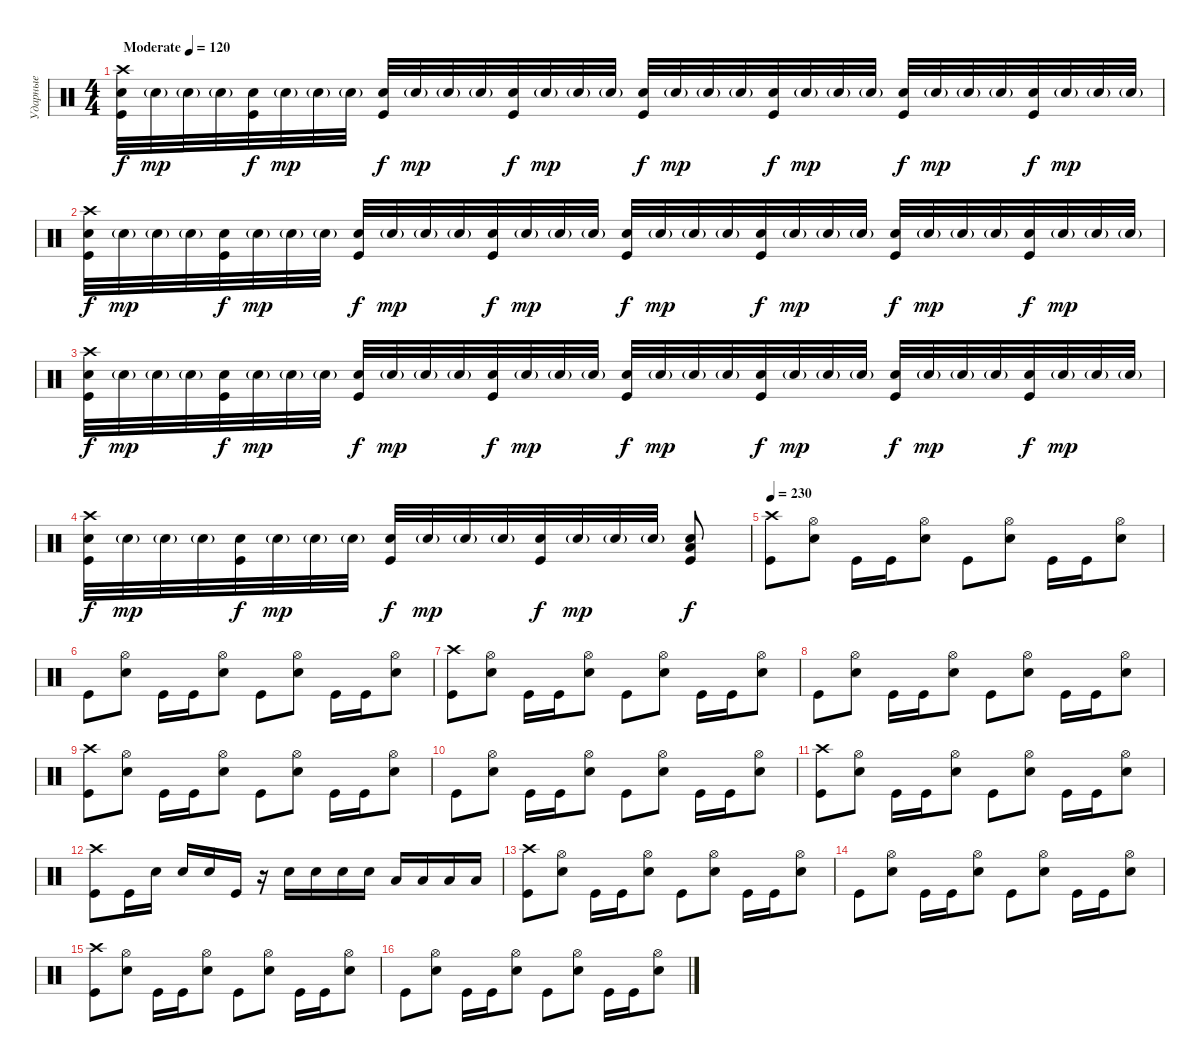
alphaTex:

\track ("Ударные" "Ударные") {instrument percussion}
\staff {score}
\articulation defaults
\ts (4 4)
\tempo (120 "Moderate")
\clef neutral
\ks c
("Crash high (hit)" "Snare (hit) 2" "Kick (hit)").32{dy f} "Snare (hit) 2"{g}.32{dy mp} "Snare (hit) 2"{g}.32 "Snare (hit) 2"{g}.32 ("Snare (hit) 2" "Kick (hit)").32{dy f} "Snare (hit) 2"{g}.32{dy mp} "Snare (hit) 2"{g}.32 "Snare (hit) 2"{g}.32 ("Snare (hit) 2" "Kick (hit)").32{dy f} "Snare (hit) 2"{g}.32{dy mp} "Snare (hit) 2"{g}.32 "Snare (hit) 2"{g}.32 ("Snare (hit) 2" "Kick (hit)").32{dy f} "Snare (hit) 2"{g}.32{dy mp} "Snare (hit) 2"{g}.32 "Snare (hit) 2"{g}.32 ("Snare (hit) 2" "Kick (hit)").32{dy f} "Snare (hit) 2"{g}.32{dy mp} "Snare (hit) 2"{g}.32 "Snare (hit) 2"{g}.32 ("Snare (hit) 2" "Kick (hit)").32{dy f} "Snare (hit) 2"{g}.32{dy mp} "Snare (hit) 2"{g}.32 "Snare (hit) 2"{g}.32 ("Snare (hit) 2" "Kick (hit)").32{dy f} "Snare (hit) 2"{g}.32{dy mp} "Snare (hit) 2"{g}.32 "Snare (hit) 2"{g}.32 ("Snare (hit) 2" "Kick (hit)").32{dy f} "Snare (hit) 2"{g}.32{dy mp} "Snare (hit) 2"{g}.32 "Snare (hit) 2"{g}.32 |
("Crash high (hit)" "Snare (hit) 2" "Kick (hit)").32{dy f} "Snare (hit) 2"{g}.32{dy mp} "Snare (hit) 2"{g}.32 "Snare (hit) 2"{g}.32 ("Snare (hit) 2" "Kick (hit)").32{dy f} "Snare (hit) 2"{g}.32{dy mp} "Snare (hit) 2"{g}.32 "Snare (hit) 2"{g}.32 ("Snare (hit) 2" "Kick (hit)").32{dy f} "Snare (hit) 2"{g}.32{dy mp} "Snare (hit) 2"{g}.32 "Snare (hit) 2"{g}.32 ("Snare (hit) 2" "Kick (hit)").32{dy f} "Snare (hit) 2"{g}.32{dy mp} "Snare (hit) 2"{g}.32 "Snare (hit) 2"{g}.32 ("Snare (hit) 2" "Kick (hit)").32{dy f} "Snare (hit) 2"{g}.32{dy mp} "Snare (hit) 2"{g}.32 "Snare (hit) 2"{g}.32 ("Snare (hit) 2" "Kick (hit)").32{dy f} "Snare (hit) 2"{g}.32{dy mp} "Snare (hit) 2"{g}.32 "Snare (hit) 2"{g}.32 ("Snare (hit) 2" "Kick (hit)").32{dy f} "Snare (hit) 2"{g}.32{dy mp} "Snare (hit) 2"{g}.32 "Snare (hit) 2"{g}.32 ("Snare (hit) 2" "Kick (hit)").32{dy f} "Snare (hit) 2"{g}.32{dy mp} "Snare (hit) 2"{g}.32 "Snare (hit) 2"{g}.32 |
("Crash high (hit)" "Snare (hit) 2" "Kick (hit)").32{dy f} "Snare (hit) 2"{g}.32{dy mp} "Snare (hit) 2"{g}.32 "Snare (hit) 2"{g}.32 ("Snare (hit) 2" "Kick (hit)").32{dy f} "Snare (hit) 2"{g}.32{dy mp} "Snare (hit) 2"{g}.32 "Snare (hit) 2"{g}.32 ("Snare (hit) 2" "Kick (hit)").32{dy f} "Snare (hit) 2"{g}.32{dy mp} "Snare (hit) 2"{g}.32 "Snare (hit) 2"{g}.32 ("Snare (hit) 2" "Kick (hit)").32{dy f} "Snare (hit) 2"{g}.32{dy mp} "Snare (hit) 2"{g}.32 "Snare (hit) 2"{g}.32 ("Snare (hit) 2" "Kick (hit)").32{dy f} "Snare (hit) 2"{g}.32{dy mp} "Snare (hit) 2"{g}.32 "Snare (hit) 2"{g}.32 ("Snare (hit) 2" "Kick (hit)").32{dy f} "Snare (hit) 2"{g}.32{dy mp} "Snare (hit) 2"{g}.32 "Snare (hit) 2"{g}.32 ("Snare (hit) 2" "Kick (hit)").32{dy f} "Snare (hit) 2"{g}.32{dy mp} "Snare (hit) 2"{g}.32 "Snare (hit) 2"{g}.32 ("Snare (hit) 2" "Kick (hit)").32{dy f} "Snare (hit) 2"{g}.32{dy mp} "Snare (hit) 2"{g}.32 "Snare (hit) 2"{g}.32 |
("Crash high (hit)" "Snare (hit) 2" "Kick (hit)").32{dy f} "Snare (hit) 2"{g}.32{dy mp} "Snare (hit) 2"{g}.32 "Snare (hit) 2"{g}.32 ("Snare (hit) 2" "Kick (hit)").32{dy f} "Snare (hit) 2"{g}.32{dy mp} "Snare (hit) 2"{g}.32 "Snare (hit) 2"{g}.32 ("Snare (hit) 2" "Kick (hit)").32{dy f} "Snare (hit) 2"{g}.32{dy mp} "Snare (hit) 2"{g}.32 "Snare (hit) 2"{g}.32 ("Snare (hit) 2" "Kick (hit)").32{dy f} "Snare (hit) 2"{g}.32{dy mp} "Snare (hit) 2"{g}.32 "Snare (hit) 2"{g}.32 ("Electric Snare (hit)" "Low Floor Tom (hit)" "Kick (hit)").8{dy f} |
\tempo 230
("Crash high (hit)" "Kick (hit)").8 ("Hi-Hat (open)" "Electric Snare (hit)").8 "Kick (hit)".16 "Kick (hit)".16 ("Hi-Hat (open)" "Electric Snare (hit)").8 "Kick (hit)".8 ("Hi-Hat (open)" "Electric Snare (hit)").8 "Kick (hit)".16 "Kick (hit)".16 ("Hi-Hat (open)" "Electric Snare (hit)").8 |
"Kick (hit)".8 ("Hi-Hat (open)" "Electric Snare (hit)").8 "Kick (hit)".16 "Kick (hit)".16 ("Hi-Hat (open)" "Electric Snare (hit)").8 "Kick (hit)".8 ("Hi-Hat (open)" "Electric Snare (hit)").8 "Kick (hit)".16 "Kick (hit)".16 ("Hi-Hat (open)" "Electric Snare (hit)").8 |
("Crash high (hit)" "Kick (hit)").8 ("Hi-Hat (open)" "Electric Snare (hit)").8 "Kick (hit)".16 "Kick (hit)".16 ("Hi-Hat (open)" "Electric Snare (hit)").8 "Kick (hit)".8 ("Hi-Hat (open)" "Electric Snare (hit)").8 "Kick (hit)".16 "Kick (hit)".16 ("Hi-Hat (open)" "Electric Snare (hit)").8 |
"Kick (hit)".8 ("Hi-Hat (open)" "Electric Snare (hit)").8 "Kick (hit)".16 "Kick (hit)".16 ("Hi-Hat (open)" "Electric Snare (hit)").8 "Kick (hit)".8 ("Hi-Hat (open)" "Electric Snare (hit)").8 "Kick (hit)".16 "Kick (hit)".16 ("Hi-Hat (open)" "Electric Snare (hit)").8 |
("Crash high (hit)" "Kick (hit)").8 ("Hi-Hat (open)" "Electric Snare (hit)").8 "Kick (hit)".16 "Kick (hit)".16 ("Hi-Hat (open)" "Electric Snare (hit)").8 "Kick (hit)".8 ("Hi-Hat (open)" "Electric Snare (hit)").8 "Kick (hit)".16 "Kick (hit)".16 ("Hi-Hat (open)" "Electric Snare (hit)").8 |
"Kick (hit)".8 ("Hi-Hat (open)" "Electric Snare (hit)").8 "Kick (hit)".16 "Kick (hit)".16 ("Hi-Hat (open)" "Electric Snare (hit)").8 "Kick (hit)".8 ("Hi-Hat (open)" "Electric Snare (hit)").8 "Kick (hit)".16 "Kick (hit)".16 ("Hi-Hat (open)" "Electric Snare (hit)").8 |
("Crash high (hit)" "Kick (hit)").8 ("Hi-Hat (open)" "Electric Snare (hit)").8 "Kick (hit)".16 "Kick (hit)".16 ("Hi-Hat (open)" "Electric Snare (hit)").8 "Kick (hit)".8 ("Hi-Hat (open)" "Electric Snare (hit)").8 "Kick (hit)".16 "Kick (hit)".16 ("Hi-Hat (open)" "Electric Snare (hit)").8 |
("Crash high (hit)" "Kick (hit)").8 "Kick (hit)".16 "Snare (hit) 2".16 "Snare (hit) 2".16 "Snare (hit) 2".16 "Kick (hit)".16 r.16 "Snare (hit) 2".16 "Snare (hit) 2".16 "Snare (hit) 2".16 "Snare (hit) 2".16 "Low Tom (hit)".16 "Low Tom (hit)".16 "Low Tom (hit)".16 "Low Tom (hit)".16 |
("Crash high (hit)" "Kick (hit)").8 ("Hi-Hat (open)" "Electric Snare (hit)").8 "Kick (hit)".16 "Kick (hit)".16 ("Hi-Hat (open)" "Electric Snare (hit)").8 "Kick (hit)".8 ("Hi-Hat (open)" "Electric Snare (hit)").8 "Kick (hit)".16 "Kick (hit)".16 ("Hi-Hat (open)" "Electric Snare (hit)").8 |
"Kick (hit)".8 ("Hi-Hat (open)" "Electric Snare (hit)").8 "Kick (hit)".16 "Kick (hit)".16 ("Hi-Hat (open)" "Electric Snare (hit)").8 "Kick (hit)".8 ("Hi-Hat (open)" "Electric Snare (hit)").8 "Kick (hit)".16 "Kick (hit)".16 ("Hi-Hat (open)" "Electric Snare (hit)").8 |
("Crash high (hit)" "Kick (hit)").8 ("Hi-Hat (open)" "Electric Snare (hit)").8 "Kick (hit)".16 "Kick (hit)".16 ("Hi-Hat (open)" "Electric Snare (hit)").8 "Kick (hit)".8 ("Hi-Hat (open)" "Electric Snare (hit)").8 "Kick (hit)".16 "Kick (hit)".16 ("Hi-Hat (open)" "Electric Snare (hit)").8 |
"Kick (hit)".8 ("Hi-Hat (open)" "Electric Snare (hit)").8 "Kick (hit)".16 "Kick (hit)".16 ("Hi-Hat (open)" "Electric Snare (hit)").8 "Kick (hit)".8 ("Hi-Hat (open)" "Electric Snare (hit)").8 "Kick (hit)".16 "Kick (hit)".16 ("Hi-Hat (open)" "Electric Snare (hit)").8
